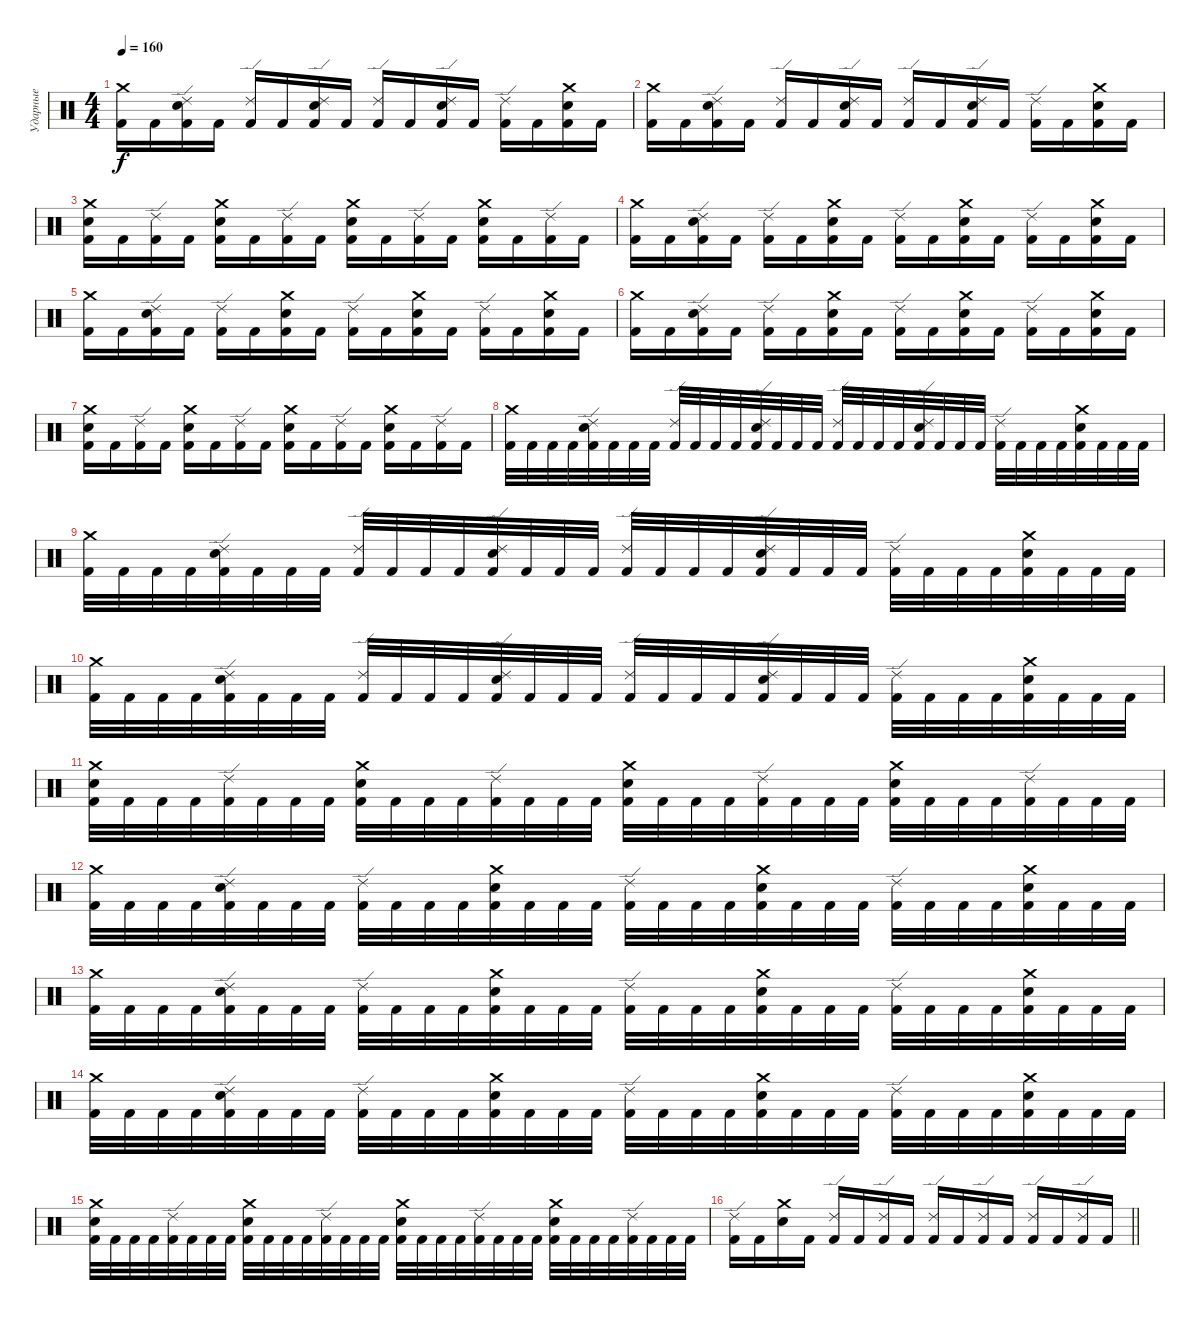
\track ("Ударные" "Ударные") {instrument percussion}
\staff {score}
\articulation defaults
\ts (4 4)
\tempo 160
\clef neutral
\ks c
("Crash medium (hit)" "Kick (hit) 2").16{dy f} "Kick (hit) 2".16 ("Ride (edge) 2" "Kick (hit) 2" "Electric Snare (hit)").16 "Kick (hit) 2".16 ("Ride (edge) 2" "Kick (hit) 2").16 "Kick (hit) 2".16 ("Ride (edge) 2" "Kick (hit) 2" "Electric Snare (hit)").16 "Kick (hit) 2".16 ("Ride (edge) 2" "Kick (hit) 2").16 "Kick (hit) 2".16 ("Ride (edge) 2" "Kick (hit) 2" "Electric Snare (hit)").16 "Kick (hit) 2".16 ("Ride (edge) 2" "Kick (hit) 2").16 "Kick (hit) 2".16 ("Crash medium (hit)" "Kick (hit) 2" "Electric Snare (hit)").16 "Kick (hit) 2".16 |
("Crash medium (hit)" "Kick (hit) 2").16 "Kick (hit) 2".16 ("Ride (edge) 2" "Kick (hit) 2" "Electric Snare (hit)").16 "Kick (hit) 2".16 ("Ride (edge) 2" "Kick (hit) 2").16 "Kick (hit) 2".16 ("Ride (edge) 2" "Kick (hit) 2" "Electric Snare (hit)").16 "Kick (hit) 2".16 ("Ride (edge) 2" "Kick (hit) 2").16 "Kick (hit) 2".16 ("Ride (edge) 2" "Kick (hit) 2" "Electric Snare (hit)").16 "Kick (hit) 2".16 ("Ride (edge) 2" "Kick (hit) 2").16 "Kick (hit) 2".16 ("Crash medium (hit)" "Kick (hit) 2" "Electric Snare (hit)").16 "Kick (hit) 2".16 |
("Crash medium (hit)" "Kick (hit) 2" "Electric Snare (hit)").16 "Kick (hit) 2".16 ("Ride (edge) 2" "Kick (hit) 2").16 "Kick (hit) 2".16 ("Crash medium (hit)" "Kick (hit) 2" "Electric Snare (hit)").16 "Kick (hit) 2".16 ("Ride (edge) 2" "Kick (hit) 2").16 "Kick (hit) 2".16 ("Crash medium (hit)" "Kick (hit) 2" "Electric Snare (hit)").16 "Kick (hit) 2".16 ("Ride (edge) 2" "Kick (hit) 2").16 "Kick (hit) 2".16 ("Crash medium (hit)" "Kick (hit) 2" "Electric Snare (hit)").16 "Kick (hit) 2".16 ("Ride (edge) 2" "Kick (hit) 2").16 "Kick (hit) 2".16 |
("Crash medium (hit)" "Kick (hit) 2").16 "Kick (hit) 2".16 ("Ride (edge) 2" "Kick (hit) 2" "Electric Snare (hit)").16 "Kick (hit) 2".16 ("Ride (edge) 2" "Kick (hit) 2").16 "Kick (hit) 2".16 ("Crash medium (hit)" "Kick (hit) 2" "Electric Snare (hit)").16 "Kick (hit) 2".16 ("Ride (edge) 2" "Kick (hit) 2").16 "Kick (hit) 2".16 ("Crash medium (hit)" "Kick (hit) 2" "Electric Snare (hit)").16 "Kick (hit) 2".16 ("Ride (edge) 2" "Kick (hit) 2").16 "Kick (hit) 2".16 ("Crash medium (hit)" "Kick (hit) 2" "Electric Snare (hit)").16 "Kick (hit) 2".16 |
("Crash medium (hit)" "Kick (hit) 2").16 "Kick (hit) 2".16 ("Ride (edge) 2" "Kick (hit) 2" "Electric Snare (hit)").16 "Kick (hit) 2".16 ("Ride (edge) 2" "Kick (hit) 2").16 "Kick (hit) 2".16 ("Crash medium (hit)" "Kick (hit) 2" "Electric Snare (hit)").16 "Kick (hit) 2".16 ("Ride (edge) 2" "Kick (hit) 2").16 "Kick (hit) 2".16 ("Crash medium (hit)" "Kick (hit) 2" "Electric Snare (hit)").16 "Kick (hit) 2".16 ("Ride (edge) 2" "Kick (hit) 2").16 "Kick (hit) 2".16 ("Crash medium (hit)" "Kick (hit) 2" "Electric Snare (hit)").16 "Kick (hit) 2".16 |
("Crash medium (hit)" "Kick (hit) 2").16 "Kick (hit) 2".16 ("Ride (edge) 2" "Kick (hit) 2" "Electric Snare (hit)").16 "Kick (hit) 2".16 ("Ride (edge) 2" "Kick (hit) 2").16 "Kick (hit) 2".16 ("Crash medium (hit)" "Kick (hit) 2" "Electric Snare (hit)").16 "Kick (hit) 2".16 ("Ride (edge) 2" "Kick (hit) 2").16 "Kick (hit) 2".16 ("Crash medium (hit)" "Kick (hit) 2" "Electric Snare (hit)").16 "Kick (hit) 2".16 ("Ride (edge) 2" "Kick (hit) 2").16 "Kick (hit) 2".16 ("Crash medium (hit)" "Kick (hit) 2" "Electric Snare (hit)").16 "Kick (hit) 2".16 |
("Crash medium (hit)" "Kick (hit) 2" "Electric Snare (hit)").16 "Kick (hit) 2".16 ("Ride (edge) 2" "Kick (hit) 2").16 "Kick (hit) 2".16 ("Crash medium (hit)" "Kick (hit) 2" "Electric Snare (hit)").16 "Kick (hit) 2".16 ("Ride (edge) 2" "Kick (hit) 2").16 "Kick (hit) 2".16 ("Crash medium (hit)" "Kick (hit) 2" "Electric Snare (hit)").16 "Kick (hit) 2".16 ("Ride (edge) 2" "Kick (hit) 2").16 "Kick (hit) 2".16 ("Crash medium (hit)" "Kick (hit) 2" "Electric Snare (hit)").16 "Kick (hit) 2".16 ("Ride (edge) 2" "Kick (hit) 2").16 "Kick (hit) 2".16 |
("Crash medium (hit)" "Kick (hit) 2").32 "Kick (hit) 2".32 "Kick (hit) 2".32 "Kick (hit) 2".32 ("Ride (edge) 2" "Kick (hit) 2" "Electric Snare (hit)").32 "Kick (hit) 2".32 "Kick (hit) 2".32 "Kick (hit) 2".32 ("Ride (edge) 2" "Kick (hit) 2").32 "Kick (hit) 2".32 "Kick (hit) 2".32 "Kick (hit) 2".32 ("Ride (edge) 2" "Kick (hit) 2" "Electric Snare (hit)").32 "Kick (hit) 2".32 "Kick (hit) 2".32 "Kick (hit) 2".32 ("Ride (edge) 2" "Kick (hit) 2").32 "Kick (hit) 2".32 "Kick (hit) 2".32 "Kick (hit) 2".32 ("Ride (edge) 2" "Kick (hit) 2" "Electric Snare (hit)").32 "Kick (hit) 2".32 "Kick (hit) 2".32 "Kick (hit) 2".32 ("Ride (edge) 2" "Kick (hit) 2").32 "Kick (hit) 2".32 "Kick (hit) 2".32 "Kick (hit) 2".32 ("Crash medium (hit)" "Kick (hit) 2" "Electric Snare (hit)").32 "Kick (hit) 2".32 "Kick (hit) 2".32 "Kick (hit) 2".32 |
("Crash medium (hit)" "Kick (hit) 2").32 "Kick (hit) 2".32 "Kick (hit) 2".32 "Kick (hit) 2".32 ("Ride (edge) 2" "Kick (hit) 2" "Electric Snare (hit)").32 "Kick (hit) 2".32 "Kick (hit) 2".32 "Kick (hit) 2".32 ("Ride (edge) 2" "Kick (hit) 2").32 "Kick (hit) 2".32 "Kick (hit) 2".32 "Kick (hit) 2".32 ("Ride (edge) 2" "Kick (hit) 2" "Electric Snare (hit)").32 "Kick (hit) 2".32 "Kick (hit) 2".32 "Kick (hit) 2".32 ("Ride (edge) 2" "Kick (hit) 2").32 "Kick (hit) 2".32 "Kick (hit) 2".32 "Kick (hit) 2".32 ("Ride (edge) 2" "Kick (hit) 2" "Electric Snare (hit)").32 "Kick (hit) 2".32 "Kick (hit) 2".32 "Kick (hit) 2".32 ("Ride (edge) 2" "Kick (hit) 2").32 "Kick (hit) 2".32 "Kick (hit) 2".32 "Kick (hit) 2".32 ("Crash medium (hit)" "Kick (hit) 2" "Electric Snare (hit)").32 "Kick (hit) 2".32 "Kick (hit) 2".32 "Kick (hit) 2".32 |
("Crash medium (hit)" "Kick (hit) 2").32 "Kick (hit) 2".32 "Kick (hit) 2".32 "Kick (hit) 2".32 ("Ride (edge) 2" "Kick (hit) 2" "Electric Snare (hit)").32 "Kick (hit) 2".32 "Kick (hit) 2".32 "Kick (hit) 2".32 ("Ride (edge) 2" "Kick (hit) 2").32 "Kick (hit) 2".32 "Kick (hit) 2".32 "Kick (hit) 2".32 ("Ride (edge) 2" "Kick (hit) 2" "Electric Snare (hit)").32 "Kick (hit) 2".32 "Kick (hit) 2".32 "Kick (hit) 2".32 ("Ride (edge) 2" "Kick (hit) 2").32 "Kick (hit) 2".32 "Kick (hit) 2".32 "Kick (hit) 2".32 ("Ride (edge) 2" "Kick (hit) 2" "Electric Snare (hit)").32 "Kick (hit) 2".32 "Kick (hit) 2".32 "Kick (hit) 2".32 ("Ride (edge) 2" "Kick (hit) 2").32 "Kick (hit) 2".32 "Kick (hit) 2".32 "Kick (hit) 2".32 ("Crash medium (hit)" "Kick (hit) 2" "Electric Snare (hit)").32 "Kick (hit) 2".32 "Kick (hit) 2".32 "Kick (hit) 2".32 |
("Crash medium (hit)" "Kick (hit) 2" "Electric Snare (hit)").32 "Kick (hit) 2".32 "Kick (hit) 2".32 "Kick (hit) 2".32 ("Ride (edge) 2" "Kick (hit) 2").32 "Kick (hit) 2".32 "Kick (hit) 2".32 "Kick (hit) 2".32 ("Crash medium (hit)" "Kick (hit) 2" "Electric Snare (hit)").32 "Kick (hit) 2".32 "Kick (hit) 2".32 "Kick (hit) 2".32 ("Ride (edge) 2" "Kick (hit) 2").32 "Kick (hit) 2".32 "Kick (hit) 2".32 "Kick (hit) 2".32 ("Crash medium (hit)" "Kick (hit) 2" "Electric Snare (hit)").32 "Kick (hit) 2".32 "Kick (hit) 2".32 "Kick (hit) 2".32 ("Ride (edge) 2" "Kick (hit) 2").32 "Kick (hit) 2".32 "Kick (hit) 2".32 "Kick (hit) 2".32 ("Crash medium (hit)" "Kick (hit) 2" "Electric Snare (hit)").32 "Kick (hit) 2".32 "Kick (hit) 2".32 "Kick (hit) 2".32 ("Ride (edge) 2" "Kick (hit) 2").32 "Kick (hit) 2".32 "Kick (hit) 2".32 "Kick (hit) 2".32 |
("Crash medium (hit)" "Kick (hit) 2").32 "Kick (hit) 2".32 "Kick (hit) 2".32 "Kick (hit) 2".32 ("Ride (edge) 2" "Kick (hit) 2" "Electric Snare (hit)").32 "Kick (hit) 2".32 "Kick (hit) 2".32 "Kick (hit) 2".32 ("Ride (edge) 2" "Kick (hit) 2").32 "Kick (hit) 2".32 "Kick (hit) 2".32 "Kick (hit) 2".32 ("Crash medium (hit)" "Kick (hit) 2" "Electric Snare (hit)").32 "Kick (hit) 2".32 "Kick (hit) 2".32 "Kick (hit) 2".32 ("Ride (edge) 2" "Kick (hit) 2").32 "Kick (hit) 2".32 "Kick (hit) 2".32 "Kick (hit) 2".32 ("Crash medium (hit)" "Kick (hit) 2" "Electric Snare (hit)").32 "Kick (hit) 2".32 "Kick (hit) 2".32 "Kick (hit) 2".32 ("Ride (edge) 2" "Kick (hit) 2").32 "Kick (hit) 2".32 "Kick (hit) 2".32 "Kick (hit) 2".32 ("Crash medium (hit)" "Kick (hit) 2" "Electric Snare (hit)").32 "Kick (hit) 2".32 "Kick (hit) 2".32 "Kick (hit) 2".32 |
("Crash medium (hit)" "Kick (hit) 2").32 "Kick (hit) 2".32 "Kick (hit) 2".32 "Kick (hit) 2".32 ("Ride (edge) 2" "Kick (hit) 2" "Electric Snare (hit)").32 "Kick (hit) 2".32 "Kick (hit) 2".32 "Kick (hit) 2".32 ("Ride (edge) 2" "Kick (hit) 2").32 "Kick (hit) 2".32 "Kick (hit) 2".32 "Kick (hit) 2".32 ("Crash medium (hit)" "Kick (hit) 2" "Electric Snare (hit)").32 "Kick (hit) 2".32 "Kick (hit) 2".32 "Kick (hit) 2".32 ("Ride (edge) 2" "Kick (hit) 2").32 "Kick (hit) 2".32 "Kick (hit) 2".32 "Kick (hit) 2".32 ("Crash medium (hit)" "Kick (hit) 2" "Electric Snare (hit)").32 "Kick (hit) 2".32 "Kick (hit) 2".32 "Kick (hit) 2".32 ("Ride (edge) 2" "Kick (hit) 2").32 "Kick (hit) 2".32 "Kick (hit) 2".32 "Kick (hit) 2".32 ("Crash medium (hit)" "Kick (hit) 2" "Electric Snare (hit)").32 "Kick (hit) 2".32 "Kick (hit) 2".32 "Kick (hit) 2".32 |
("Crash medium (hit)" "Kick (hit) 2").32 "Kick (hit) 2".32 "Kick (hit) 2".32 "Kick (hit) 2".32 ("Ride (edge) 2" "Kick (hit) 2" "Electric Snare (hit)").32 "Kick (hit) 2".32 "Kick (hit) 2".32 "Kick (hit) 2".32 ("Ride (edge) 2" "Kick (hit) 2").32 "Kick (hit) 2".32 "Kick (hit) 2".32 "Kick (hit) 2".32 ("Crash medium (hit)" "Kick (hit) 2" "Electric Snare (hit)").32 "Kick (hit) 2".32 "Kick (hit) 2".32 "Kick (hit) 2".32 ("Ride (edge) 2" "Kick (hit) 2").32 "Kick (hit) 2".32 "Kick (hit) 2".32 "Kick (hit) 2".32 ("Crash medium (hit)" "Kick (hit) 2" "Electric Snare (hit)").32 "Kick (hit) 2".32 "Kick (hit) 2".32 "Kick (hit) 2".32 ("Ride (edge) 2" "Kick (hit) 2").32 "Kick (hit) 2".32 "Kick (hit) 2".32 "Kick (hit) 2".32 ("Crash medium (hit)" "Kick (hit) 2" "Electric Snare (hit)").32 "Kick (hit) 2".32 "Kick (hit) 2".32 "Kick (hit) 2".32 |
("Crash medium (hit)" "Kick (hit) 2" "Electric Snare (hit)").32 "Kick (hit) 2".32 "Kick (hit) 2".32 "Kick (hit) 2".32 ("Ride (edge) 2" "Kick (hit) 2").32 "Kick (hit) 2".32 "Kick (hit) 2".32 "Kick (hit) 2".32 ("Crash medium (hit)" "Kick (hit) 2" "Electric Snare (hit)").32 "Kick (hit) 2".32 "Kick (hit) 2".32 "Kick (hit) 2".32 ("Ride (edge) 2" "Kick (hit) 2").32 "Kick (hit) 2".32 "Kick (hit) 2".32 "Kick (hit) 2".32 ("Crash medium (hit)" "Kick (hit) 2" "Electric Snare (hit)").32 "Kick (hit) 2".32 "Kick (hit) 2".32 "Kick (hit) 2".32 ("Ride (edge) 2" "Kick (hit) 2").32 "Kick (hit) 2".32 "Kick (hit) 2".32 "Kick (hit) 2".32 ("Crash medium (hit)" "Kick (hit) 2" "Electric Snare (hit)").32 "Kick (hit) 2".32 "Kick (hit) 2".32 "Kick (hit) 2".32 ("Ride (edge) 2" "Kick (hit) 2").32 "Kick (hit) 2".32 "Kick (hit) 2".32 "Kick (hit) 2".32 |
\barLineRight lightlight
("Ride (edge) 2" "Kick (hit) 2").16 "Kick (hit) 2".16 ("Crash medium (hit)" "Electric Snare (hit)").16 "Kick (hit) 2".16 ("Ride (edge) 2" "Kick (hit) 2").16 "Kick (hit) 2".16 ("Ride (edge) 2" "Kick (hit) 2").16 "Kick (hit) 2".16 ("Ride (edge) 2" "Kick (hit) 2").16 "Kick (hit) 2".16 ("Ride (edge) 2" "Kick (hit) 2").16 "Kick (hit) 2".16 ("Ride (edge) 2" "Kick (hit) 2").16 "Kick (hit) 2".16 ("Ride (edge) 2" "Kick (hit) 2").16 "Kick (hit) 2".16
